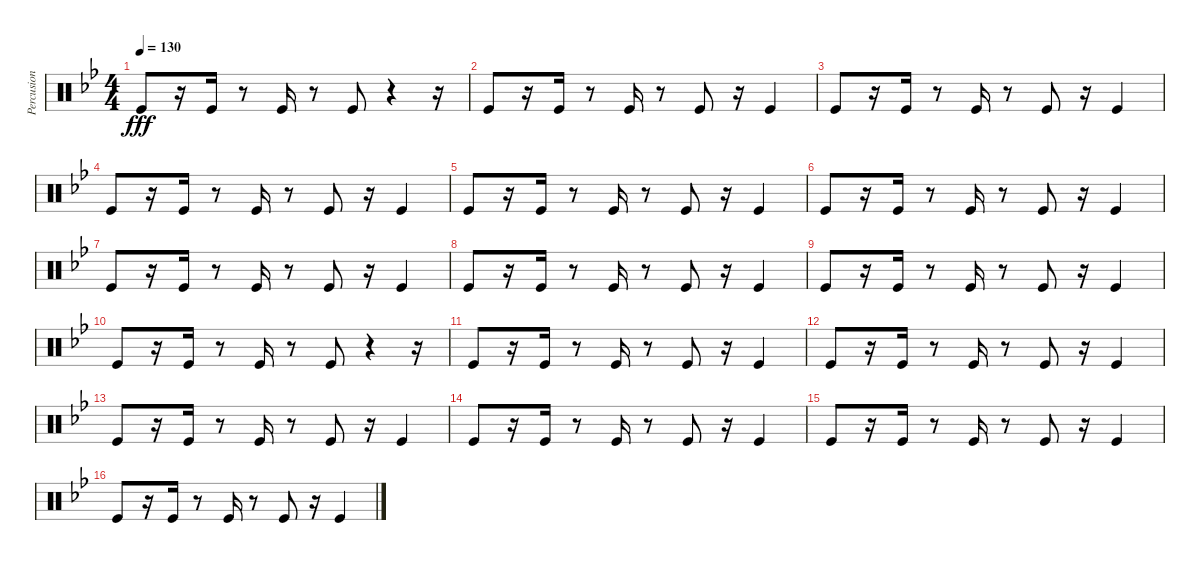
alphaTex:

\track ("Percusion II" "Percusion ") {instrument percussion}
\staff {score}
\articulation defaults
\ts (4 4)
\tempo 130
\clef neutral
\ks gminor "Kick (hit)".8{dy fff}
r.16 "Kick (hit)".16 r.8 "Kick (hit)".16 r.8 "Kick (hit)".8 r.4 r.16 |
"Kick (hit)".8 r.16 "Kick (hit)".16 r.8 "Kick (hit)".16 r.8 "Kick (hit)".8 r.16 "Kick (hit)".4 |
"Kick (hit)".8 r.16 "Kick (hit)".16 r.8 "Kick (hit)".16 r.8 "Kick (hit)".8 r.16 "Kick (hit)".4 |
"Kick (hit)".8 r.16 "Kick (hit)".16 r.8 "Kick (hit)".16 r.8 "Kick (hit)".8 r.16 "Kick (hit)".4 |
"Kick (hit)".8 r.16 "Kick (hit)".16 r.8 "Kick (hit)".16 r.8 "Kick (hit)".8 r.16 "Kick (hit)".4 |
"Kick (hit)".8 r.16 "Kick (hit)".16 r.8 "Kick (hit)".16 r.8 "Kick (hit)".8 r.16 "Kick (hit)".4 |
"Kick (hit)".8 r.16 "Kick (hit)".16 r.8 "Kick (hit)".16 r.8 "Kick (hit)".8 r.16 "Kick (hit)".4 |
"Kick (hit)".8 r.16 "Kick (hit)".16 r.8 "Kick (hit)".16 r.8 "Kick (hit)".8 r.16 "Kick (hit)".4 |
"Kick (hit)".8 r.16 "Kick (hit)".16 r.8 "Kick (hit)".16 r.8 "Kick (hit)".8 r.16 "Kick (hit)".4 |
"Kick (hit)".8 r.16 "Kick (hit)".16 r.8 "Kick (hit)".16 r.8 "Kick (hit)".8 r.4 r.16 |
"Kick (hit)".8 r.16 "Kick (hit)".16 r.8 "Kick (hit)".16 r.8 "Kick (hit)".8 r.16 "Kick (hit)".4 |
"Kick (hit)".8 r.16 "Kick (hit)".16 r.8 "Kick (hit)".16 r.8 "Kick (hit)".8 r.16 "Kick (hit)".4 |
"Kick (hit)".8 r.16 "Kick (hit)".16 r.8 "Kick (hit)".16 r.8 "Kick (hit)".8 r.16 "Kick (hit)".4 |
"Kick (hit)".8 r.16 "Kick (hit)".16 r.8 "Kick (hit)".16 r.8 "Kick (hit)".8 r.16 "Kick (hit)".4 |
"Kick (hit)".8 r.16 "Kick (hit)".16 r.8 "Kick (hit)".16 r.8 "Kick (hit)".8 r.16 "Kick (hit)".4 |
"Kick (hit)".8 r.16 "Kick (hit)".16 r.8 "Kick (hit)".16 r.8 "Kick (hit)".8 r.16 "Kick (hit)".4
